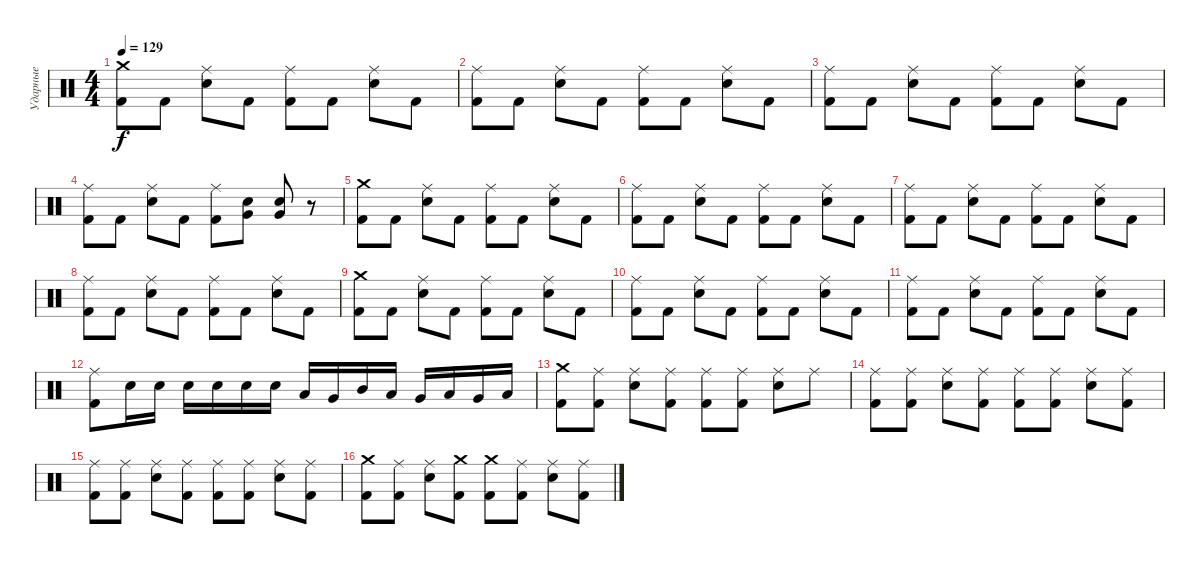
\track ("Ударные" "Ударные") {instrument percussion}
\staff {score}
\articulation defaults
\ts (4 4)
\tempo 129
\clef neutral
\ks c
("Crash medium (hit)" "Kick (hit) 2").8{dy f} "Kick (hit) 2".8 ("Ride (middle)" "Electric Snare (hit)").8 "Kick (hit) 2".8 ("Ride (middle)" "Kick (hit) 2").8 "Kick (hit) 2".8 ("Ride (middle)" "Electric Snare (hit)").8 "Kick (hit) 2".8 |
("Ride (middle)" "Kick (hit) 2").8 "Kick (hit) 2".8 ("Ride (middle)" "Electric Snare (hit)").8 "Kick (hit) 2".8 ("Ride (middle)" "Kick (hit) 2").8 "Kick (hit) 2".8 ("Ride (middle)" "Electric Snare (hit)").8 "Kick (hit) 2".8 |
("Ride (middle)" "Kick (hit) 2").8 "Kick (hit) 2".8 ("Ride (middle)" "Electric Snare (hit)").8 "Kick (hit) 2".8 ("Ride (middle)" "Kick (hit) 2").8 "Kick (hit) 2".8 ("Ride (middle)" "Electric Snare (hit)").8 "Kick (hit) 2".8 |
("Ride (middle)" "Kick (hit) 2").8 "Kick (hit) 2".8 ("Ride (middle)" "Electric Snare (hit)").8 "Kick (hit) 2".8 ("Ride (middle)" "Kick (hit) 2").8 ("Very Low Tom (hit)" "Electric Snare (hit)").8 ("Very Low Tom (hit)" "Electric Snare (hit)").8 r.8 |
("Crash medium (hit)" "Kick (hit) 2").8 "Kick (hit) 2".8 ("Ride (middle)" "Electric Snare (hit)").8 "Kick (hit) 2".8 ("Ride (middle)" "Kick (hit) 2").8 "Kick (hit) 2".8 ("Ride (middle)" "Electric Snare (hit)").8 "Kick (hit) 2".8 |
("Ride (middle)" "Kick (hit) 2").8 "Kick (hit) 2".8 ("Ride (middle)" "Electric Snare (hit)").8 "Kick (hit) 2".8 ("Ride (middle)" "Kick (hit) 2").8 "Kick (hit) 2".8 ("Ride (middle)" "Electric Snare (hit)").8 "Kick (hit) 2".8 |
("Ride (middle)" "Kick (hit) 2").8 "Kick (hit) 2".8 ("Ride (middle)" "Electric Snare (hit)").8 "Kick (hit) 2".8 ("Ride (middle)" "Kick (hit) 2").8 "Kick (hit) 2".8 ("Ride (middle)" "Electric Snare (hit)").8 "Kick (hit) 2".8 |
("Ride (middle)" "Kick (hit) 2").8 "Kick (hit) 2".8 ("Ride (middle)" "Electric Snare (hit)").8 "Kick (hit) 2".8 ("Ride (middle)" "Kick (hit) 2").8 "Kick (hit) 2".8 ("Ride (middle)" "Electric Snare (hit)").8 "Kick (hit) 2".8 |
("Crash medium (hit)" "Kick (hit) 2").8 "Kick (hit) 2".8 ("Ride (middle)" "Electric Snare (hit)").8 "Kick (hit) 2".8 ("Ride (middle)" "Kick (hit) 2").8 "Kick (hit) 2".8 ("Ride (middle)" "Electric Snare (hit)").8 "Kick (hit) 2".8 |
("Ride (middle)" "Kick (hit) 2").8 "Kick (hit) 2".8 ("Ride (middle)" "Electric Snare (hit)").8 "Kick (hit) 2".8 ("Ride (middle)" "Kick (hit) 2").8 "Kick (hit) 2".8 ("Ride (middle)" "Electric Snare (hit)").8 "Kick (hit) 2".8 |
("Ride (middle)" "Kick (hit) 2").8 "Kick (hit) 2".8 ("Ride (middle)" "Electric Snare (hit)").8 "Kick (hit) 2".8 ("Ride (middle)" "Kick (hit) 2").8 "Kick (hit) 2".8 ("Ride (middle)" "Electric Snare (hit)").8 "Kick (hit) 2".8 |
("Ride (middle)" "Kick (hit) 2").8 "Electric Snare (hit)".16 "Electric Snare (hit)".16 "Electric Snare (hit)".16 "Electric Snare (hit)".16 "Electric Snare (hit)".16 "Electric Snare (hit)".16 "Low Floor Tom (hit)".16 "Very Low Tom (hit)".16 "Mid Tom (hit)".16 "Low Tom (hit)".16 "Very Low Tom (hit)".16 "Low Floor Tom (hit)".16 "Very Low Tom (hit)".16 "Low Tom (hit)".16 |
("Crash medium (hit)" "Kick (hit) 2").8 ("Ride (middle)" "Kick (hit) 2").8 ("Ride (middle)" "Electric Snare (hit)").8 ("Ride (middle)" "Kick (hit) 2").8 ("Ride (middle)" "Kick (hit) 2").8 ("Ride (middle)" "Kick (hit) 2").8 ("Ride (middle)" "Electric Snare (hit)").8 "Ride (middle)".8 |
("Ride (middle)" "Kick (hit) 2").8 ("Ride (middle)" "Kick (hit) 2").8 ("Ride (middle)" "Electric Snare (hit)").8 ("Ride (middle)" "Kick (hit) 2").8 ("Ride (middle)" "Kick (hit) 2").8 ("Ride (middle)" "Kick (hit) 2").8 ("Ride (middle)" "Electric Snare (hit)").8 ("Ride (middle)" "Kick (hit) 2").8 |
("Ride (middle)" "Kick (hit) 2").8 ("Ride (middle)" "Kick (hit) 2").8 ("Ride (middle)" "Electric Snare (hit)").8 ("Ride (middle)" "Kick (hit) 2").8 ("Ride (middle)" "Kick (hit) 2").8 ("Ride (middle)" "Kick (hit) 2").8 ("Ride (middle)" "Electric Snare (hit)").8 ("Ride (middle)" "Kick (hit) 2").8 |
("Crash medium (hit)" "Kick (hit) 2").8 ("Ride (middle)" "Kick (hit) 2").8 ("Ride (middle)" "Electric Snare (hit)").8 ("Crash medium (hit)" "Kick (hit) 2").8 ("Crash medium (hit)" "Kick (hit) 2").8 ("Ride (middle)" "Kick (hit) 2").8 ("Ride (middle)" "Electric Snare (hit)").8 ("Ride (middle)" "Kick (hit) 2").8
